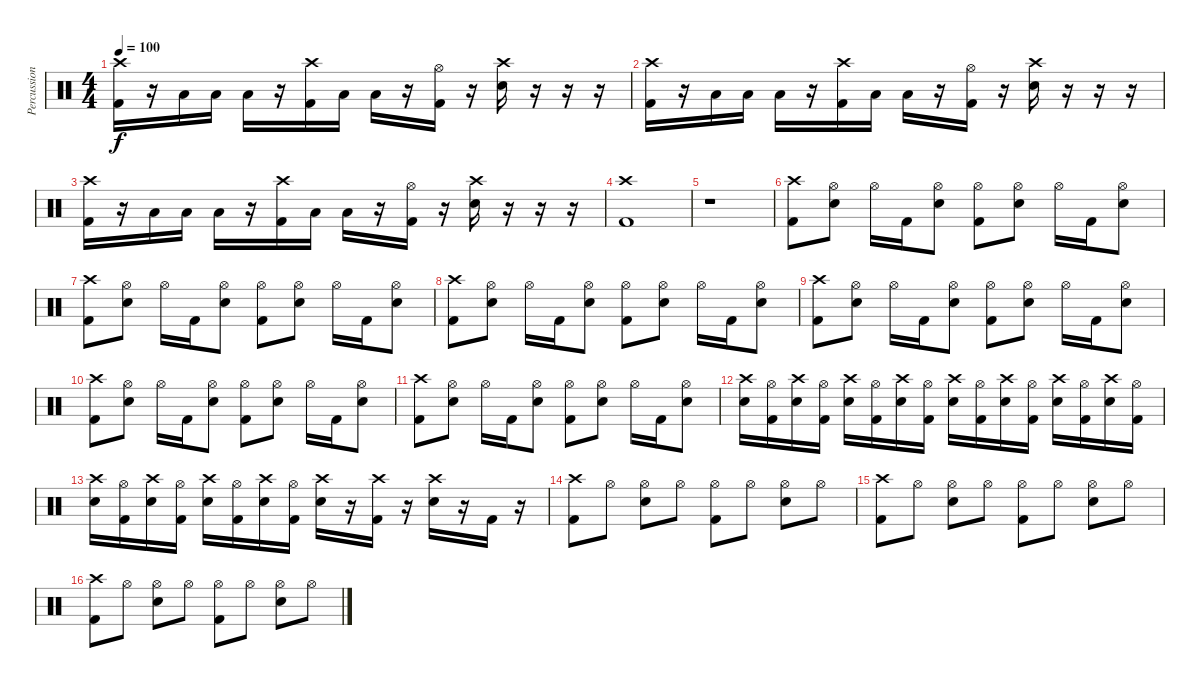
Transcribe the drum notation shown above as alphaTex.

\track ("Percussion" "Percussion") {instrument percussion}
\staff {score}
\articulation defaults
\ts (4 4)
\tempo 100
\clef neutral
\ks c
("Crash high (hit)" "Kick (hit) 2").16{dy f} r.16 "Low Floor Tom (hit)".16 "Low Floor Tom (hit)".16 "Low Floor Tom (hit)".16 r.16 ("Crash high (hit)" "Kick (hit) 2").16 "Low Floor Tom (hit)".16 "Low Floor Tom (hit)".16 r.16 ("Hi-Hat (open)" "Kick (hit) 2").16 r.16 ("Crash high (hit)" "Snare (hit) 2").16 r.16 r.16 r.16 |
("Crash high (hit)" "Kick (hit) 2").16 r.16 "Low Floor Tom (hit)".16 "Low Floor Tom (hit)".16 "Low Floor Tom (hit)".16 r.16 ("Crash high (hit)" "Kick (hit) 2").16 "Low Floor Tom (hit)".16 "Low Floor Tom (hit)".16 r.16 ("Hi-Hat (open)" "Kick (hit) 2").16 r.16 ("Crash high (hit)" "Snare (hit) 2").16 r.16 r.16 r.16 |
("Crash high (hit)" "Kick (hit) 2").16 r.16 "Low Floor Tom (hit)".16 "Low Floor Tom (hit)".16 "Low Floor Tom (hit)".16 r.16 ("Crash high (hit)" "Kick (hit) 2").16 "Low Floor Tom (hit)".16 "Low Floor Tom (hit)".16 r.16 ("Hi-Hat (open)" "Kick (hit) 2").16 r.16 ("Crash high (hit)" "Snare (hit) 2").16 r.16 r.16 r.16 |
("Crash high (hit)" "Kick (hit) 2").1 |
r.1 |
("Crash high (hit)" "Kick (hit) 2").8 ("Hi-Hat (open)" "Snare (hit) 2").8 "Hi-Hat (open)".16 "Kick (hit) 2".16 ("Hi-Hat (open)" "Snare (hit) 2").8 ("Hi-Hat (open)" "Kick (hit) 2").8 ("Hi-Hat (open)" "Snare (hit) 2").8 "Hi-Hat (open)".16 "Kick (hit) 2".16 ("Hi-Hat (open)" "Snare (hit) 2").8 |
("Crash high (hit)" "Kick (hit) 2").8 ("Hi-Hat (open)" "Snare (hit) 2").8 "Hi-Hat (open)".16 "Kick (hit) 2".16 ("Hi-Hat (open)" "Snare (hit) 2").8 ("Hi-Hat (open)" "Kick (hit) 2").8 ("Hi-Hat (open)" "Snare (hit) 2").8 "Hi-Hat (open)".16 "Kick (hit) 2".16 ("Hi-Hat (open)" "Snare (hit) 2").8 |
("Crash high (hit)" "Kick (hit) 2").8 ("Hi-Hat (open)" "Snare (hit) 2").8 "Hi-Hat (open)".16 "Kick (hit) 2".16 ("Hi-Hat (open)" "Snare (hit) 2").8 ("Hi-Hat (open)" "Kick (hit) 2").8 ("Hi-Hat (open)" "Snare (hit) 2").8 "Hi-Hat (open)".16 "Kick (hit) 2".16 ("Hi-Hat (open)" "Snare (hit) 2").8 |
("Crash high (hit)" "Kick (hit) 2").8 ("Hi-Hat (open)" "Snare (hit) 2").8 "Hi-Hat (open)".16 "Kick (hit) 2".16 ("Hi-Hat (open)" "Snare (hit) 2").8 ("Hi-Hat (open)" "Kick (hit) 2").8 ("Hi-Hat (open)" "Snare (hit) 2").8 "Hi-Hat (open)".16 "Kick (hit) 2".16 ("Hi-Hat (open)" "Snare (hit) 2").8 |
("Crash high (hit)" "Kick (hit) 2").8 ("Hi-Hat (open)" "Snare (hit) 2").8 "Hi-Hat (open)".16 "Kick (hit) 2".16 ("Hi-Hat (open)" "Snare (hit) 2").8 ("Hi-Hat (open)" "Kick (hit) 2").8 ("Hi-Hat (open)" "Snare (hit) 2").8 "Hi-Hat (open)".16 "Kick (hit) 2".16 ("Hi-Hat (open)" "Snare (hit) 2").8 |
("Crash high (hit)" "Kick (hit) 2").8 ("Hi-Hat (open)" "Snare (hit) 2").8 "Hi-Hat (open)".16 "Kick (hit) 2".16 ("Hi-Hat (open)" "Snare (hit) 2").8 ("Hi-Hat (open)" "Kick (hit) 2").8 ("Hi-Hat (open)" "Snare (hit) 2").8 "Hi-Hat (open)".16 "Kick (hit) 2".16 ("Hi-Hat (open)" "Snare (hit) 2").8 |
("Crash high (hit)" "Snare (hit) 2").16 ("Hi-Hat (open)" "Kick (hit) 2").16 ("Crash high (hit)" "Snare (hit) 2").16 ("Hi-Hat (open)" "Kick (hit) 2").16 ("Crash high (hit)" "Snare (hit) 2").16 ("Hi-Hat (open)" "Kick (hit) 2").16 ("Crash high (hit)" "Snare (hit) 2").16 ("Hi-Hat (open)" "Kick (hit) 2").16 ("Crash high (hit)" "Snare (hit) 2").16 ("Hi-Hat (open)" "Kick (hit) 2").16 ("Crash high (hit)" "Snare (hit) 2").16 ("Hi-Hat (open)" "Kick (hit) 2").16 ("Crash high (hit)" "Snare (hit) 2").16 ("Hi-Hat (open)" "Kick (hit) 2").16 ("Crash high (hit)" "Snare (hit) 2").16 ("Hi-Hat (open)" "Kick (hit) 2").16 |
("Crash high (hit)" "Snare (hit) 2").16 ("Hi-Hat (open)" "Kick (hit) 2").16 ("Crash high (hit)" "Snare (hit) 2").16 ("Hi-Hat (open)" "Kick (hit) 2").16 ("Crash high (hit)" "Snare (hit) 2").16 ("Hi-Hat (open)" "Kick (hit) 2").16 ("Crash high (hit)" "Snare (hit) 2").16 ("Hi-Hat (open)" "Kick (hit) 2").16 ("Crash high (hit)" "Snare (hit) 2").16 r.16 ("Crash high (hit)" "Kick (hit) 2").16 r.16 ("Crash high (hit)" "Snare (hit) 2").16 r.16 "Kick (hit) 2".16 r.16 |
("Crash high (hit)" "Kick (hit) 2").8 "Hi-Hat (open)".8 ("Hi-Hat (open)" "Snare (hit) 2").8 "Hi-Hat (open)".8 ("Hi-Hat (open)" "Kick (hit) 2").8 "Hi-Hat (open)".8 ("Hi-Hat (open)" "Snare (hit) 2").8 "Hi-Hat (open)".8 |
("Crash high (hit)" "Kick (hit) 2").8 "Hi-Hat (open)".8 ("Hi-Hat (open)" "Snare (hit) 2").8 "Hi-Hat (open)".8 ("Hi-Hat (open)" "Kick (hit) 2").8 "Hi-Hat (open)".8 ("Hi-Hat (open)" "Snare (hit) 2").8 "Hi-Hat (open)".8 |
("Crash high (hit)" "Kick (hit) 2").8 "Hi-Hat (open)".8 ("Hi-Hat (open)" "Snare (hit) 2").8 "Hi-Hat (open)".8 ("Hi-Hat (open)" "Kick (hit) 2").8 "Hi-Hat (open)".8 ("Hi-Hat (open)" "Snare (hit) 2").8 "Hi-Hat (open)".8
